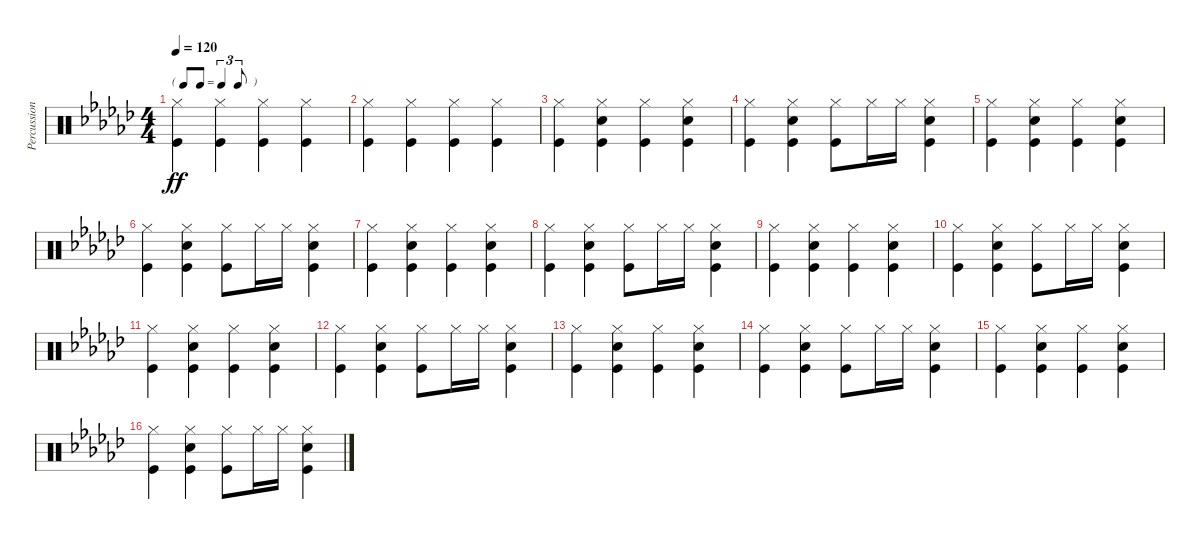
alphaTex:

\track ("Percussion" "Percussion") {instrument percussion}
\staff {score}
\articulation defaults
\ts (4 4)
\tf triplet8th
\tempo 120
\clef neutral
\ks gb
("Hi-Hat (closed)" "Kick (hit)").4{dy ff} ("Hi-Hat (closed)" "Kick (hit)").4 ("Hi-Hat (closed)" "Kick (hit)").4 ("Hi-Hat (closed)" "Kick (hit)").4 |
("Hi-Hat (closed)" "Kick (hit)").4 ("Hi-Hat (closed)" "Kick (hit)").4 ("Hi-Hat (closed)" "Kick (hit)").4 ("Hi-Hat (closed)" "Kick (hit)").4 |
("Hi-Hat (closed)" "Kick (hit)").4 ("Hi-Hat (closed)" "Snare (hit) 2" "Kick (hit)").4 ("Hi-Hat (closed)" "Kick (hit)").4 ("Hi-Hat (closed)" "Snare (hit) 2" "Kick (hit)").4 |
("Hi-Hat (closed)" "Kick (hit)").4 ("Hi-Hat (closed)" "Snare (hit) 2" "Kick (hit)").4 ("Hi-Hat (closed)" "Kick (hit)").8 "Hi-Hat (closed)".16 "Hi-Hat (closed)".16 ("Hi-Hat (closed)" "Snare (hit) 2" "Kick (hit)").4 |
("Hi-Hat (closed)" "Kick (hit)").4 ("Hi-Hat (closed)" "Snare (hit) 2" "Kick (hit)").4 ("Hi-Hat (closed)" "Kick (hit)").4 ("Hi-Hat (closed)" "Snare (hit) 2" "Kick (hit)").4 |
("Hi-Hat (closed)" "Kick (hit)").4 ("Hi-Hat (closed)" "Snare (hit) 2" "Kick (hit)").4 ("Hi-Hat (closed)" "Kick (hit)").8 "Hi-Hat (closed)".16 "Hi-Hat (closed)".16 ("Hi-Hat (closed)" "Snare (hit) 2" "Kick (hit)").4 |
("Hi-Hat (closed)" "Kick (hit)").4 ("Hi-Hat (closed)" "Snare (hit) 2" "Kick (hit)").4 ("Hi-Hat (closed)" "Kick (hit)").4 ("Hi-Hat (closed)" "Snare (hit) 2" "Kick (hit)").4 |
("Hi-Hat (closed)" "Kick (hit)").4 ("Hi-Hat (closed)" "Snare (hit) 2" "Kick (hit)").4 ("Hi-Hat (closed)" "Kick (hit)").8 "Hi-Hat (closed)".16 "Hi-Hat (closed)".16 ("Hi-Hat (closed)" "Snare (hit) 2" "Kick (hit)").4 |
("Hi-Hat (closed)" "Kick (hit)").4 ("Hi-Hat (closed)" "Snare (hit) 2" "Kick (hit)").4 ("Hi-Hat (closed)" "Kick (hit)").4 ("Hi-Hat (closed)" "Snare (hit) 2" "Kick (hit)").4 |
("Hi-Hat (closed)" "Kick (hit)").4 ("Hi-Hat (closed)" "Snare (hit) 2" "Kick (hit)").4 ("Hi-Hat (closed)" "Kick (hit)").8 "Hi-Hat (closed)".16 "Hi-Hat (closed)".16 ("Hi-Hat (closed)" "Snare (hit) 2" "Kick (hit)").4 |
("Hi-Hat (closed)" "Kick (hit)").4 ("Hi-Hat (closed)" "Snare (hit) 2" "Kick (hit)").4 ("Hi-Hat (closed)" "Kick (hit)").4 ("Hi-Hat (closed)" "Snare (hit) 2" "Kick (hit)").4 |
("Hi-Hat (closed)" "Kick (hit)").4 ("Hi-Hat (closed)" "Snare (hit) 2" "Kick (hit)").4 ("Hi-Hat (closed)" "Kick (hit)").8 "Hi-Hat (closed)".16 "Hi-Hat (closed)".16 ("Hi-Hat (closed)" "Snare (hit) 2" "Kick (hit)").4 |
("Hi-Hat (closed)" "Kick (hit)").4 ("Hi-Hat (closed)" "Snare (hit) 2" "Kick (hit)").4 ("Hi-Hat (closed)" "Kick (hit)").4 ("Hi-Hat (closed)" "Snare (hit) 2" "Kick (hit)").4 |
("Hi-Hat (closed)" "Kick (hit)").4 ("Hi-Hat (closed)" "Snare (hit) 2" "Kick (hit)").4 ("Hi-Hat (closed)" "Kick (hit)").8 "Hi-Hat (closed)".16 "Hi-Hat (closed)".16 ("Hi-Hat (closed)" "Snare (hit) 2" "Kick (hit)").4 |
("Hi-Hat (closed)" "Kick (hit)").4 ("Hi-Hat (closed)" "Snare (hit) 2" "Kick (hit)").4 ("Hi-Hat (closed)" "Kick (hit)").4 ("Hi-Hat (closed)" "Snare (hit) 2" "Kick (hit)").4 |
("Hi-Hat (closed)" "Kick (hit)").4 ("Hi-Hat (closed)" "Snare (hit) 2" "Kick (hit)").4 ("Hi-Hat (closed)" "Kick (hit)").8 "Hi-Hat (closed)".16 "Hi-Hat (closed)".16 ("Hi-Hat (closed)" "Snare (hit) 2" "Kick (hit)").4
